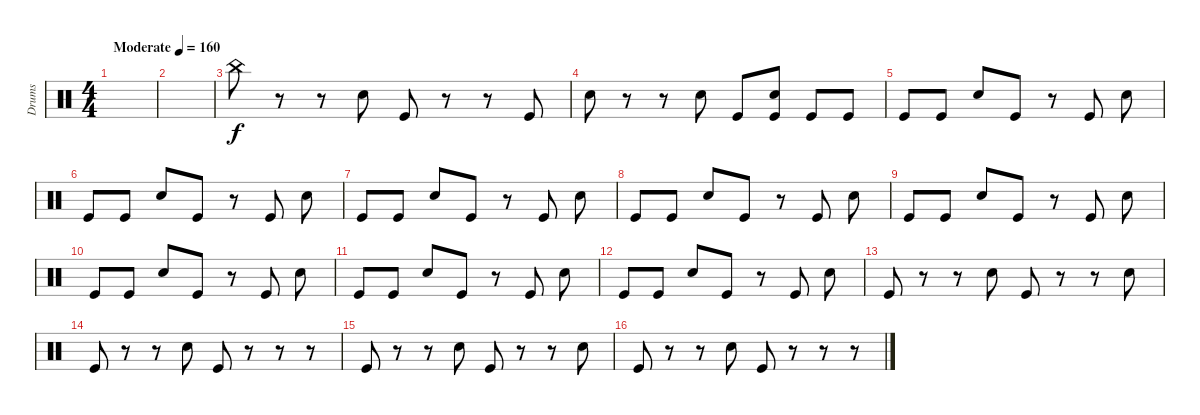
\track ("Drums" "Drums") {instrument percussion}
\staff {score}
\articulation defaults
\ts (4 4)
\tempo (160 "Moderate")
\clef neutral
\ks c
|
|
"China (hit)".8 r.8 r.8 "Snare (hit) 2".8 "Kick (hit)".8 r.8 r.8 "Kick (hit)".8 |
"Snare (hit) 2".8 r.8 r.8 "Snare (hit) 2".8 "Kick (hit)".8 ("Kick (hit)" "Snare (hit) 2").8 "Kick (hit)".8 "Kick (hit)".8 |
"Kick (hit)".8 "Kick (hit)".8 "Snare (hit) 2".8 "Kick (hit)".8 r.8 "Kick (hit)".8 "Snare (hit) 2".8 |
"Kick (hit)".8 "Kick (hit)".8 "Snare (hit) 2".8 "Kick (hit)".8 r.8 "Kick (hit)".8 "Snare (hit) 2".8 |
"Kick (hit)".8 "Kick (hit)".8 "Snare (hit) 2".8 "Kick (hit)".8 r.8 "Kick (hit)".8 "Snare (hit) 2".8 |
"Kick (hit)".8 "Kick (hit)".8 "Snare (hit) 2".8 "Kick (hit)".8 r.8 "Kick (hit)".8 "Snare (hit) 2".8 |
"Kick (hit)".8 "Kick (hit)".8 "Snare (hit) 2".8 "Kick (hit)".8 r.8 "Kick (hit)".8 "Snare (hit) 2".8 |
"Kick (hit)".8 "Kick (hit)".8 "Snare (hit) 2".8 "Kick (hit)".8 r.8 "Kick (hit)".8 "Snare (hit) 2".8 |
"Kick (hit)".8 "Kick (hit)".8 "Snare (hit) 2".8 "Kick (hit)".8 r.8 "Kick (hit)".8 "Snare (hit) 2".8 |
"Kick (hit)".8 "Kick (hit)".8 "Snare (hit) 2".8 "Kick (hit)".8 r.8 "Kick (hit)".8 "Snare (hit) 2".8 |
"Kick (hit)".8 r.8 r.8 "Snare (hit) 2".8 "Kick (hit)".8 r.8 r.8 "Snare (hit) 2".8 |
"Kick (hit)".8 r.8 r.8 "Snare (hit) 2".8 "Kick (hit)".8 r.8 r.8 r.8 |
"Kick (hit)".8 r.8 r.8 "Snare (hit) 2".8 "Kick (hit)".8 r.8 r.8 "Snare (hit) 2".8 |
"Kick (hit)".8 r.8 r.8 "Snare (hit) 2".8 "Kick (hit)".8 r.8 r.8 r.8
